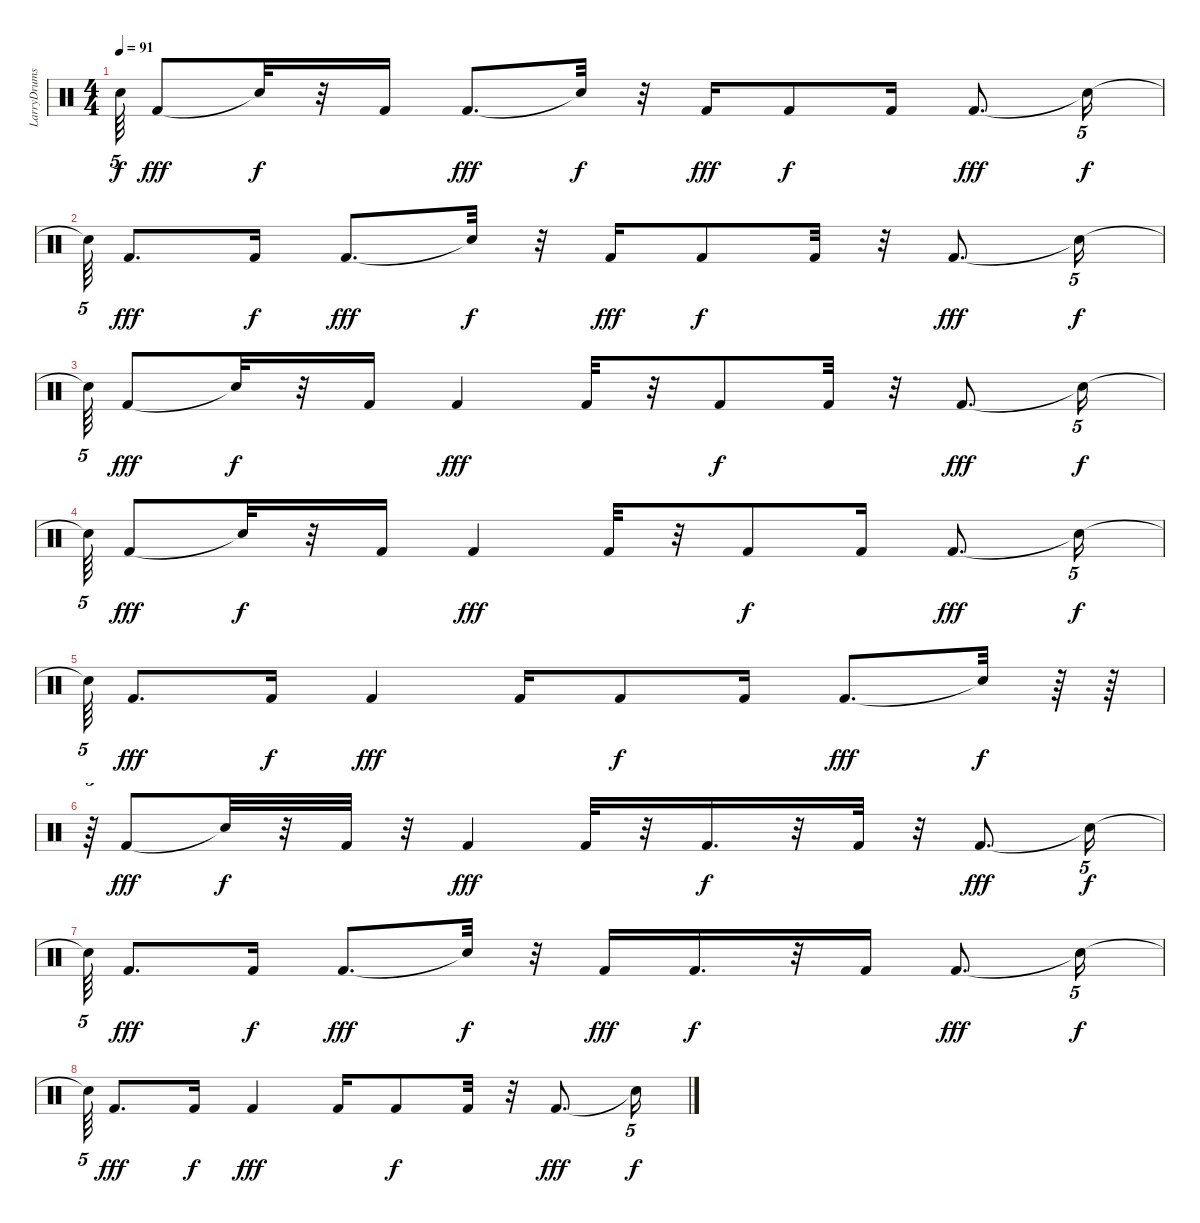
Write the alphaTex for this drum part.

\track ("LarryDrums" "LarryDrums") {instrument percussion}
\staff {score}
\articulation defaults
\ts (4 4)
\tempo 91
\clef neutral
\ks c "Snare (hit)"{t}.64{tu (5 4) dy f} "Kick (hit) 2".8{dy fff} "Snare (hit)"{t}.32{dy f}
r.32 "Kick (hit) 2".16 "Kick (hit) 2".8{d dy fff} "Snare (hit)"{t}.32{dy f} r.32 "Kick (hit) 2".16{dy fff} "Kick (hit) 2".8{dy f} "Kick (hit) 2".16 "Kick (hit) 2".8{d dy fff} "Snare (hit)"{t}.16{tu (5 4) dy f} |
"Snare (hit)"{t}.64{tu (5 4)} "Kick (hit) 2".8{d dy fff} "Kick (hit) 2".16{dy f} "Kick (hit) 2".8{d dy fff} "Snare (hit)"{t}.32{dy f} r.32 "Kick (hit) 2".16{dy fff} "Kick (hit) 2".8{dy f} "Kick (hit) 2".32 r.32 "Kick (hit) 2".8{d dy fff} "Snare (hit)"{t}.16{tu (5 4) dy f} |
"Snare (hit)"{t}.64{tu (5 4)} "Kick (hit) 2".8{dy fff} "Snare (hit)"{t}.32{dy f} r.32 "Kick (hit) 2".16 "Kick (hit) 2".4{dy fff} "Kick (hit) 2".32 r.32 "Kick (hit) 2".8{dy f} "Kick (hit) 2".32 r.32 "Kick (hit) 2".8{d dy fff} "Snare (hit)"{t}.16{tu (5 4) dy f} |
"Snare (hit)"{t}.64{tu (5 4)} "Kick (hit) 2".8{dy fff} "Snare (hit)"{t}.32{dy f} r.32 "Kick (hit) 2".16 "Kick (hit) 2".4{dy fff} "Kick (hit) 2".32 r.32 "Kick (hit) 2".8{dy f} "Kick (hit) 2".16 "Kick (hit) 2".8{d dy fff} "Snare (hit)"{t}.16{tu (5 4) dy f} |
"Snare (hit)"{t}.64{tu (5 4)} "Kick (hit) 2".8{d dy fff} "Kick (hit) 2".16{dy f} "Kick (hit) 2".4{dy fff} "Kick (hit) 2".16 "Kick (hit) 2".8{dy f} "Kick (hit) 2".16 "Kick (hit) 2".8{d dy fff} "Snare (hit)"{t}.32{dy f} r.64 r.64 |
r.64{tu (5 4)} "Kick (hit) 2".8{dy fff} "Snare (hit)"{t}.32{dy f} r.32 "Kick (hit) 2".32 r.32 "Kick (hit) 2".4{dy fff} "Kick (hit) 2".32 r.32 "Kick (hit) 2".16{d dy f} r.32 "Kick (hit) 2".32 r.32 "Kick (hit) 2".8{d dy fff} "Snare (hit)"{t}.16{tu (5 4) dy f} |
"Snare (hit)"{t}.64{tu (5 4)} "Kick (hit) 2".8{d dy fff} "Kick (hit) 2".16{dy f} "Kick (hit) 2".8{d dy fff} "Snare (hit)"{t}.32{dy f} r.32 "Kick (hit) 2".16{dy fff} "Kick (hit) 2".16{d dy f} r.32 "Kick (hit) 2".16 "Kick (hit) 2".8{d dy fff} "Snare (hit)"{t}.16{tu (5 4) dy f} |
"Snare (hit)"{t}.64{tu (5 4)} "Kick (hit) 2".8{d dy fff} "Kick (hit) 2".16{dy f} "Kick (hit) 2".4{dy fff} "Kick (hit) 2".16 "Kick (hit) 2".8{dy f} "Kick (hit) 2".32 r.32 "Kick (hit) 2".8{d dy fff} "Snare (hit)"{t}.16{tu (5 4) dy f}
